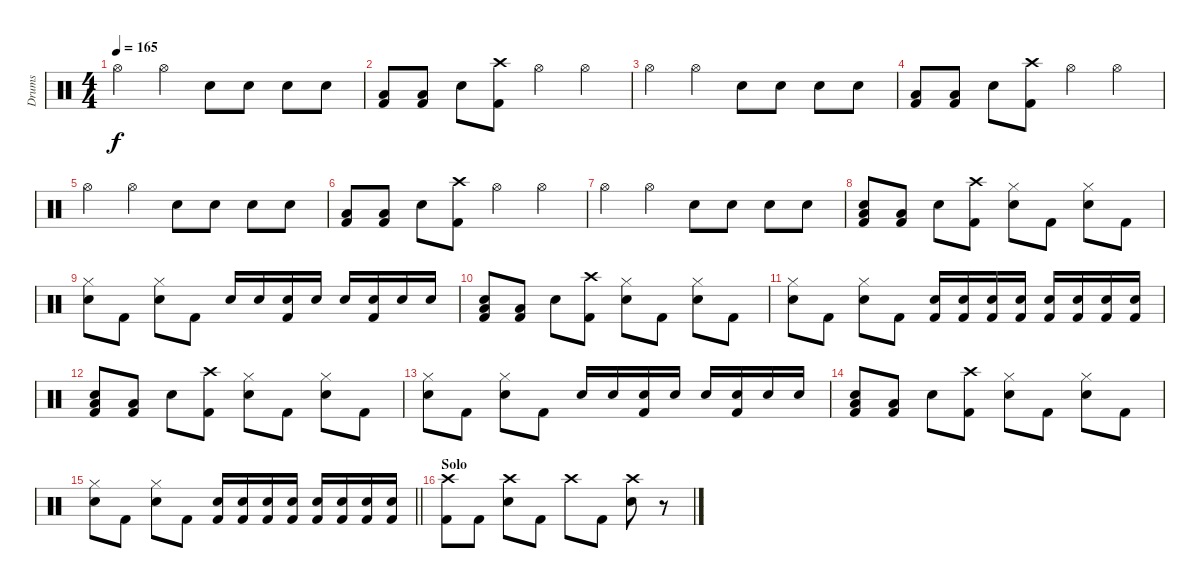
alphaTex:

\track ("Drums" "Drums") {instrument percussion}
\staff {score}
\articulation defaults
\ts (4 4)
\tempo 165
\clef neutral
\ks c "Hi-Hat (open)".4{dy f} "Hi-Hat (open)".4 "Snare (hit) 2".8 "Snare (hit) 2".8 "Snare (hit) 2".8 "Snare (hit) 2".8
|
("Low Floor Tom (hit)" "Kick (hit) 2").8 ("Low Floor Tom (hit)" "Kick (hit) 2").8 "Snare (hit) 2".8 ("Crash high (hit)" "Kick (hit) 2").8 "Hi-Hat (open)".4 "Hi-Hat (open)".4 |
"Hi-Hat (open)".4 "Hi-Hat (open)".4 "Snare (hit) 2".8 "Snare (hit) 2".8 "Snare (hit) 2".8 "Snare (hit) 2".8 |
("Low Floor Tom (hit)" "Kick (hit) 2").8 ("Low Floor Tom (hit)" "Kick (hit) 2").8 "Snare (hit) 2".8 ("Crash high (hit)" "Kick (hit) 2").8 "Hi-Hat (open)".4 "Hi-Hat (open)".4 |
"Hi-Hat (open)".4 "Hi-Hat (open)".4 "Snare (hit) 2".8 "Snare (hit) 2".8 "Snare (hit) 2".8 "Snare (hit) 2".8 |
("Low Floor Tom (hit)" "Kick (hit) 2").8 ("Low Floor Tom (hit)" "Kick (hit) 2").8 "Snare (hit) 2".8 ("Crash high (hit)" "Kick (hit) 2").8 "Hi-Hat (open)".4 "Hi-Hat (open)".4 |
"Hi-Hat (open)".4 "Hi-Hat (open)".4 "Snare (hit) 2".8 "Snare (hit) 2".8 "Snare (hit) 2".8 "Snare (hit) 2".8 |
("Snare (hit) 2" "Low Floor Tom (hit)" "Kick (hit) 2").8 ("Low Floor Tom (hit)" "Kick (hit) 2").8 "Snare (hit) 2".8 ("Crash high (hit)" "Kick (hit) 2").8 ("Hi-Hat (closed)" "Snare (hit) 2").8 "Kick (hit) 2".8 ("Hi-Hat (closed)" "Snare (hit) 2").8 "Kick (hit) 2".8 |
("Hi-Hat (closed)" "Snare (hit) 2").8 "Kick (hit) 2".8 ("Hi-Hat (closed)" "Snare (hit) 2").8 "Kick (hit) 2".8 "Snare (hit) 2".16 "Snare (hit) 2".16 ("Snare (hit) 2" "Kick (hit) 2").16 "Snare (hit) 2".16 "Snare (hit) 2".16 ("Snare (hit) 2" "Kick (hit) 2").16 "Snare (hit) 2".16 "Snare (hit) 2".16 |
("Snare (hit) 2" "Low Floor Tom (hit)" "Kick (hit) 2").8 ("Low Floor Tom (hit)" "Kick (hit) 2").8 "Snare (hit) 2".8 ("Crash high (hit)" "Kick (hit) 2").8 ("Hi-Hat (closed)" "Snare (hit) 2").8 "Kick (hit) 2".8 ("Hi-Hat (closed)" "Snare (hit) 2").8 "Kick (hit) 2".8 |
("Hi-Hat (closed)" "Snare (hit) 2").8 "Kick (hit) 2".8 ("Hi-Hat (closed)" "Snare (hit) 2").8 "Kick (hit) 2".8 ("Snare (hit) 2" "Kick (hit) 2").16 ("Snare (hit) 2" "Kick (hit) 2").16 ("Snare (hit) 2" "Kick (hit) 2").16 ("Snare (hit) 2" "Kick (hit) 2").16 ("Snare (hit) 2" "Kick (hit) 2").16 ("Snare (hit) 2" "Kick (hit) 2").16 ("Snare (hit) 2" "Kick (hit) 2").16 ("Snare (hit) 2" "Kick (hit) 2").16 |
("Snare (hit) 2" "Low Floor Tom (hit)" "Kick (hit) 2").8 ("Low Floor Tom (hit)" "Kick (hit) 2").8 "Snare (hit) 2".8 ("Crash high (hit)" "Kick (hit) 2").8 ("Hi-Hat (closed)" "Snare (hit) 2").8 "Kick (hit) 2".8 ("Hi-Hat (closed)" "Snare (hit) 2").8 "Kick (hit) 2".8 |
("Hi-Hat (closed)" "Snare (hit) 2").8 "Kick (hit) 2".8 ("Hi-Hat (closed)" "Snare (hit) 2").8 "Kick (hit) 2".8 "Snare (hit) 2".16 "Snare (hit) 2".16 ("Snare (hit) 2" "Kick (hit) 2").16 "Snare (hit) 2".16 "Snare (hit) 2".16 ("Snare (hit) 2" "Kick (hit) 2").16 "Snare (hit) 2".16 "Snare (hit) 2".16 |
("Snare (hit) 2" "Low Floor Tom (hit)" "Kick (hit) 2").8 ("Low Floor Tom (hit)" "Kick (hit) 2").8 "Snare (hit) 2".8 ("Crash high (hit)" "Kick (hit) 2").8 ("Hi-Hat (closed)" "Snare (hit) 2").8 "Kick (hit) 2".8 ("Hi-Hat (closed)" "Snare (hit) 2").8 "Kick (hit) 2".8 |
\barLineRight lightlight
("Hi-Hat (closed)" "Snare (hit) 2").8 "Kick (hit) 2".8 ("Hi-Hat (closed)" "Snare (hit) 2").8 "Kick (hit) 2".8 ("Snare (hit) 2" "Kick (hit) 2").16 ("Snare (hit) 2" "Kick (hit) 2").16 ("Snare (hit) 2" "Kick (hit) 2").16 ("Snare (hit) 2" "Kick (hit) 2").16 ("Snare (hit) 2" "Kick (hit) 2").16 ("Snare (hit) 2" "Kick (hit) 2").16 ("Snare (hit) 2" "Kick (hit) 2").16 ("Snare (hit) 2" "Kick (hit) 2").16 |
\section ("" "Solo")
("Crash high (hit)" "Kick (hit) 2").8 "Kick (hit) 2".8 ("Crash high (hit)" "Snare (hit) 2").8 "Kick (hit) 2".8 "Crash high (hit)".8 "Kick (hit) 2".8 ("Crash high (hit)" "Snare (hit) 2").8 r.8
